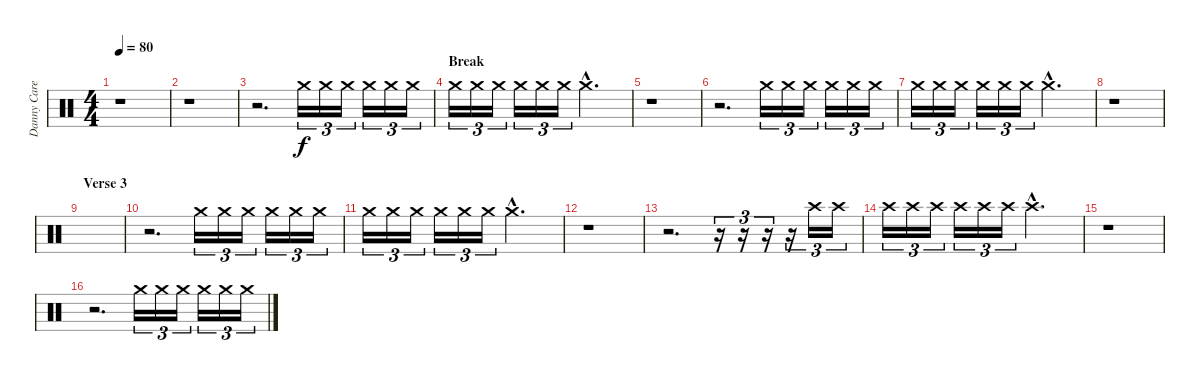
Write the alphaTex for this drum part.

\track ("Danny Carey - Percussion" "Danny Care") {instrument percussion}
\staff {score}
\articulation defaults
\ts (4 4)
\tempo 80
\clef neutral
\ks c
r.1{dy f} |
r.1 |
r.2{d volume 0} "Crash medium (hit)".16{tu (3 2) volume 10} "Crash medium (hit)".16{tu (3 2)} "Crash medium (hit)".16{tu (3 2)} "Crash medium (hit)".16{tu (3 2)} "Crash medium (hit)".16{tu (3 2)} "Crash medium (hit)".16{tu (3 2)} |
\section ("" "Break")
"Crash medium (hit)".16{tu (3 2)} "Crash medium (hit)".16{tu (3 2)} "Crash medium (hit)".16{tu (3 2)} "Crash medium (hit)".16{tu (3 2)} "Crash medium (hit)".16{tu (3 2)} "Crash medium (hit)".16{tu (3 2)} "Crash medium (hit)"{hac}.2{d} |
r.1 |
r.2{d volume 0} "Crash medium (hit)".16{tu (3 2) volume 10} "Crash medium (hit)".16{tu (3 2)} "Crash medium (hit)".16{tu (3 2)} "Crash medium (hit)".16{tu (3 2)} "Crash medium (hit)".16{tu (3 2)} "Crash medium (hit)".16{tu (3 2)} |
"Crash medium (hit)".16{tu (3 2)} "Crash medium (hit)".16{tu (3 2)} "Crash medium (hit)".16{tu (3 2)} "Crash medium (hit)".16{tu (3 2)} "Crash medium (hit)".16{tu (3 2)} "Crash medium (hit)".16{tu (3 2)} "Crash medium (hit)"{hac}.2{d} |
r.1 |
\section ("" "Verse 3")
|
r.2{d volume 0} "Crash medium (hit)".16{tu (3 2) volume 10} "Crash medium (hit)".16{tu (3 2)} "Crash medium (hit)".16{tu (3 2)} "Crash medium (hit)".16{tu (3 2)} "Crash medium (hit)".16{tu (3 2)} "Crash medium (hit)".16{tu (3 2)} |
"Crash medium (hit)".16{tu (3 2)} "Crash medium (hit)".16{tu (3 2)} "Crash medium (hit)".16{tu (3 2)} "Crash medium (hit)".16{tu (3 2)} "Crash medium (hit)".16{tu (3 2)} "Crash medium (hit)".16{tu (3 2)} "Crash medium (hit)"{hac}.2{d} |
r.1 |
r.2{d volume 0} r.16{tu (3 2) volume 10} r.16{tu (3 2)} r.16{tu (3 2)} r.16{tu (3 2)} "Crash high (hit)".16{tu (3 2)} "Crash high (hit)".16{tu (3 2)} |
"Crash high (hit)".16{tu (3 2)} "Crash high (hit)".16{tu (3 2)} "Crash high (hit)".16{tu (3 2)} "Crash high (hit)".16{tu (3 2)} "Crash high (hit)".16{tu (3 2)} "Crash high (hit)".16{tu (3 2)} "Crash high (hit)"{hac}.2{d} |
r.1 |
r.2{d volume 0} "Crash medium (hit)".16{tu (3 2) volume 10} "Crash medium (hit)".16{tu (3 2)} "Crash medium (hit)".16{tu (3 2)} "Crash medium (hit)".16{tu (3 2)} "Crash medium (hit)".16{tu (3 2)} "Crash medium (hit)".16{tu (3 2)}
